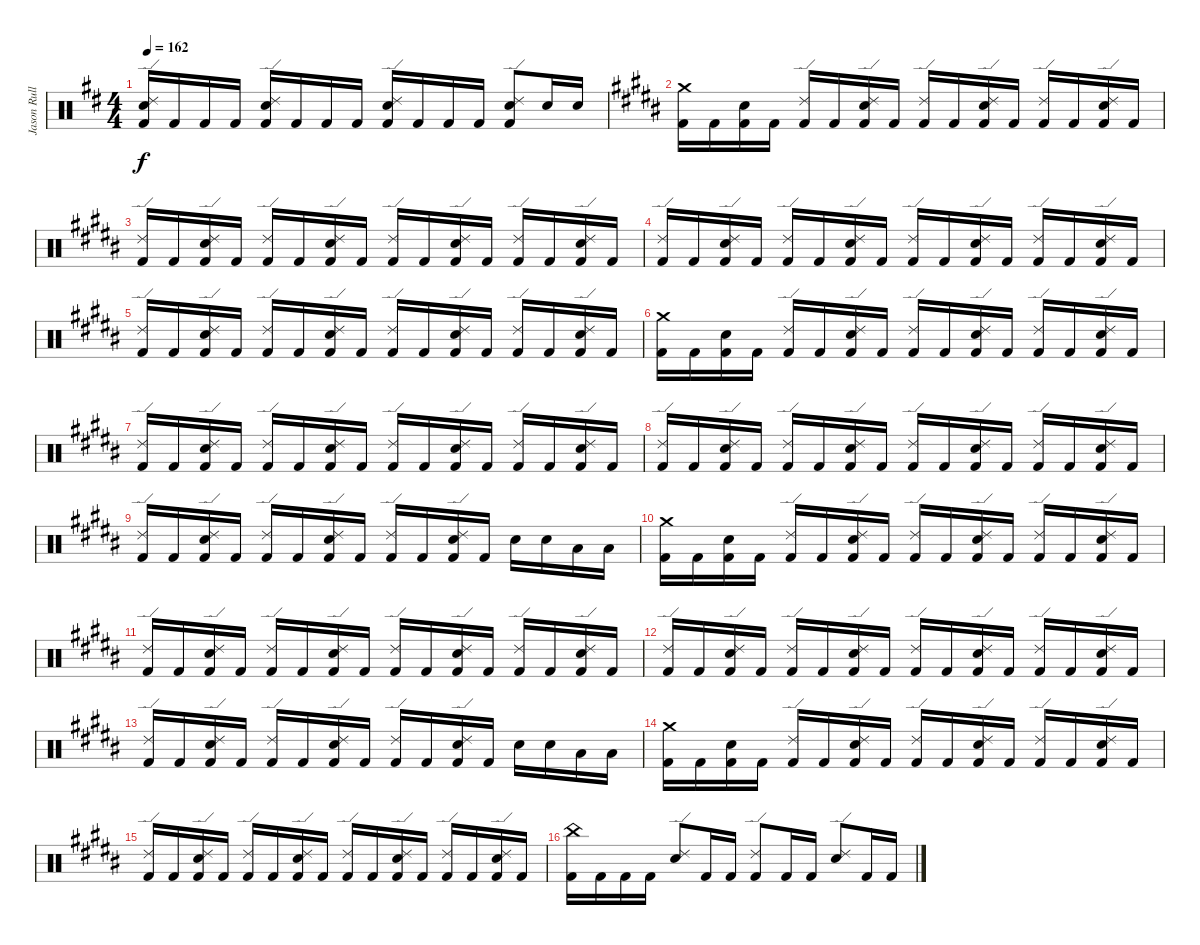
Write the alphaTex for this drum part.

\track ("Jason Rullo" "Jason Rull") {instrument percussion}
\staff {score}
\articulation defaults
\ts (4 4)
\tempo 162
\clef neutral
\ks bminor
("Ride (edge) 2" "Electric Snare (hit)" "Kick (hit) 2").16{dy f} "Kick (hit) 2".16 "Kick (hit) 2".16 "Kick (hit) 2".16 ("Ride (edge) 2" "Electric Snare (hit)" "Kick (hit) 2").16 "Kick (hit) 2".16 "Kick (hit) 2".16 "Kick (hit) 2".16 ("Ride (edge) 2" "Electric Snare (hit)" "Kick (hit) 2").16 "Kick (hit) 2".16 "Kick (hit) 2".16 "Kick (hit) 2".16 ("Ride (edge) 2" "Electric Snare (hit)" "Kick (hit) 2").8 "Electric Snare (hit)".16 "Electric Snare (hit)".16 |
\ks g#minor
("Crash medium (hit)" "Kick (hit) 2").16 "Kick (hit) 2".16 ("Electric Snare (hit)" "Kick (hit) 2").16 "Kick (hit) 2".16 ("Ride (edge) 2" "Kick (hit) 2").16 "Kick (hit) 2".16 ("Electric Snare (hit)" "Ride (edge) 2" "Kick (hit) 2").16 "Kick (hit) 2".16 ("Ride (edge) 2" "Kick (hit) 2").16 "Kick (hit) 2".16 ("Electric Snare (hit)" "Ride (edge) 2" "Kick (hit) 2").16 "Kick (hit) 2".16 ("Ride (edge) 2" "Kick (hit) 2").16 "Kick (hit) 2".16 ("Electric Snare (hit)" "Ride (edge) 2" "Kick (hit) 2").16 "Kick (hit) 2".16 |
("Ride (edge) 2" "Kick (hit) 2").16 "Kick (hit) 2".16 ("Electric Snare (hit)" "Ride (edge) 2" "Kick (hit) 2").16 "Kick (hit) 2".16 ("Ride (edge) 2" "Kick (hit) 2").16 "Kick (hit) 2".16 ("Electric Snare (hit)" "Ride (edge) 2" "Kick (hit) 2").16 "Kick (hit) 2".16 ("Ride (edge) 2" "Kick (hit) 2").16 "Kick (hit) 2".16 ("Electric Snare (hit)" "Ride (edge) 2" "Kick (hit) 2").16 "Kick (hit) 2".16 ("Ride (edge) 2" "Kick (hit) 2").16 "Kick (hit) 2".16 ("Electric Snare (hit)" "Ride (edge) 2" "Kick (hit) 2").16 "Kick (hit) 2".16 |
("Ride (edge) 2" "Kick (hit) 2").16 "Kick (hit) 2".16 ("Electric Snare (hit)" "Ride (edge) 2" "Kick (hit) 2").16 "Kick (hit) 2".16 ("Ride (edge) 2" "Kick (hit) 2").16 "Kick (hit) 2".16 ("Electric Snare (hit)" "Ride (edge) 2" "Kick (hit) 2").16 "Kick (hit) 2".16 ("Ride (edge) 2" "Kick (hit) 2").16 "Kick (hit) 2".16 ("Electric Snare (hit)" "Ride (edge) 2" "Kick (hit) 2").16 "Kick (hit) 2".16 ("Ride (edge) 2" "Kick (hit) 2").16 "Kick (hit) 2".16 ("Electric Snare (hit)" "Ride (edge) 2" "Kick (hit) 2").16 "Kick (hit) 2".16 |
("Ride (edge) 2" "Kick (hit) 2").16 "Kick (hit) 2".16 ("Electric Snare (hit)" "Ride (edge) 2" "Kick (hit) 2").16 "Kick (hit) 2".16 ("Ride (edge) 2" "Kick (hit) 2").16 "Kick (hit) 2".16 ("Electric Snare (hit)" "Ride (edge) 2" "Kick (hit) 2").16 "Kick (hit) 2".16 ("Ride (edge) 2" "Kick (hit) 2").16 "Kick (hit) 2".16 ("Electric Snare (hit)" "Ride (edge) 2" "Kick (hit) 2").16 "Kick (hit) 2".16 ("Ride (edge) 2" "Kick (hit) 2").16 "Kick (hit) 2".16 ("Electric Snare (hit)" "Ride (edge) 2" "Kick (hit) 2").16 "Kick (hit) 2".16 |
("Crash medium (hit)" "Kick (hit) 2").16 "Kick (hit) 2".16 ("Electric Snare (hit)" "Kick (hit) 2").16 "Kick (hit) 2".16 ("Ride (edge) 2" "Kick (hit) 2").16 "Kick (hit) 2".16 ("Electric Snare (hit)" "Ride (edge) 2" "Kick (hit) 2").16 "Kick (hit) 2".16 ("Ride (edge) 2" "Kick (hit) 2").16 "Kick (hit) 2".16 ("Electric Snare (hit)" "Ride (edge) 2" "Kick (hit) 2").16 "Kick (hit) 2".16 ("Ride (edge) 2" "Kick (hit) 2").16 "Kick (hit) 2".16 ("Electric Snare (hit)" "Ride (edge) 2" "Kick (hit) 2").16 "Kick (hit) 2".16 |
("Ride (edge) 2" "Kick (hit) 2").16 "Kick (hit) 2".16 ("Electric Snare (hit)" "Ride (edge) 2" "Kick (hit) 2").16 "Kick (hit) 2".16 ("Ride (edge) 2" "Kick (hit) 2").16 "Kick (hit) 2".16 ("Electric Snare (hit)" "Ride (edge) 2" "Kick (hit) 2").16 "Kick (hit) 2".16 ("Ride (edge) 2" "Kick (hit) 2").16 "Kick (hit) 2".16 ("Electric Snare (hit)" "Ride (edge) 2" "Kick (hit) 2").16 "Kick (hit) 2".16 ("Ride (edge) 2" "Kick (hit) 2").16 "Kick (hit) 2".16 ("Electric Snare (hit)" "Ride (edge) 2" "Kick (hit) 2").16 "Kick (hit) 2".16 |
("Ride (edge) 2" "Kick (hit) 2").16 "Kick (hit) 2".16 ("Electric Snare (hit)" "Ride (edge) 2" "Kick (hit) 2").16 "Kick (hit) 2".16 ("Ride (edge) 2" "Kick (hit) 2").16 "Kick (hit) 2".16 ("Electric Snare (hit)" "Ride (edge) 2" "Kick (hit) 2").16 "Kick (hit) 2".16 ("Ride (edge) 2" "Kick (hit) 2").16 "Kick (hit) 2".16 ("Electric Snare (hit)" "Ride (edge) 2" "Kick (hit) 2").16 "Kick (hit) 2".16 ("Ride (edge) 2" "Kick (hit) 2").16 "Kick (hit) 2".16 ("Electric Snare (hit)" "Ride (edge) 2" "Kick (hit) 2").16 "Kick (hit) 2".16 |
("Ride (edge) 2" "Kick (hit) 2").16 "Kick (hit) 2".16 ("Electric Snare (hit)" "Ride (edge) 2" "Kick (hit) 2").16 "Kick (hit) 2".16 ("Ride (edge) 2" "Kick (hit) 2").16 "Kick (hit) 2".16 ("Electric Snare (hit)" "Ride (edge) 2" "Kick (hit) 2").16 "Kick (hit) 2".16 ("Ride (edge) 2" "Kick (hit) 2").16 "Kick (hit) 2".16 ("Electric Snare (hit)" "Ride (edge) 2" "Kick (hit) 2").16 "Kick (hit) 2".16 "Electric Snare (hit)".16 "Electric Snare (hit)".16 "Low Tom (hit)".16 "Low Tom (hit)".16 |
("Crash medium (hit)" "Kick (hit) 2").16 "Kick (hit) 2".16 ("Electric Snare (hit)" "Kick (hit) 2").16 "Kick (hit) 2".16 ("Ride (edge) 2" "Kick (hit) 2").16 "Kick (hit) 2".16 ("Electric Snare (hit)" "Ride (edge) 2" "Kick (hit) 2").16 "Kick (hit) 2".16 ("Ride (edge) 2" "Kick (hit) 2").16 "Kick (hit) 2".16 ("Electric Snare (hit)" "Ride (edge) 2" "Kick (hit) 2").16 "Kick (hit) 2".16 ("Ride (edge) 2" "Kick (hit) 2").16 "Kick (hit) 2".16 ("Electric Snare (hit)" "Ride (edge) 2" "Kick (hit) 2").16 "Kick (hit) 2".16 |
("Ride (edge) 2" "Kick (hit) 2").16 "Kick (hit) 2".16 ("Electric Snare (hit)" "Ride (edge) 2" "Kick (hit) 2").16 "Kick (hit) 2".16 ("Ride (edge) 2" "Kick (hit) 2").16 "Kick (hit) 2".16 ("Electric Snare (hit)" "Ride (edge) 2" "Kick (hit) 2").16 "Kick (hit) 2".16 ("Ride (edge) 2" "Kick (hit) 2").16 "Kick (hit) 2".16 ("Electric Snare (hit)" "Ride (edge) 2" "Kick (hit) 2").16 "Kick (hit) 2".16 ("Ride (edge) 2" "Kick (hit) 2").16 "Kick (hit) 2".16 ("Electric Snare (hit)" "Ride (edge) 2" "Kick (hit) 2").16 "Kick (hit) 2".16 |
("Ride (edge) 2" "Kick (hit) 2").16 "Kick (hit) 2".16 ("Electric Snare (hit)" "Ride (edge) 2" "Kick (hit) 2").16 "Kick (hit) 2".16 ("Ride (edge) 2" "Kick (hit) 2").16 "Kick (hit) 2".16 ("Electric Snare (hit)" "Ride (edge) 2" "Kick (hit) 2").16 "Kick (hit) 2".16 ("Ride (edge) 2" "Kick (hit) 2").16 "Kick (hit) 2".16 ("Electric Snare (hit)" "Ride (edge) 2" "Kick (hit) 2").16 "Kick (hit) 2".16 ("Ride (edge) 2" "Kick (hit) 2").16 "Kick (hit) 2".16 ("Electric Snare (hit)" "Ride (edge) 2" "Kick (hit) 2").16 "Kick (hit) 2".16 |
("Ride (edge) 2" "Kick (hit) 2").16 "Kick (hit) 2".16 ("Electric Snare (hit)" "Ride (edge) 2" "Kick (hit) 2").16 "Kick (hit) 2".16 ("Ride (edge) 2" "Kick (hit) 2").16 "Kick (hit) 2".16 ("Electric Snare (hit)" "Ride (edge) 2" "Kick (hit) 2").16 "Kick (hit) 2".16 ("Ride (edge) 2" "Kick (hit) 2").16 "Kick (hit) 2".16 ("Electric Snare (hit)" "Ride (edge) 2" "Kick (hit) 2").16 "Kick (hit) 2".16 "Electric Snare (hit)".16 "Electric Snare (hit)".16 "Low Tom (hit)".16 "Low Tom (hit)".16 |
("Crash medium (hit)" "Kick (hit) 2").16 "Kick (hit) 2".16 ("Electric Snare (hit)" "Kick (hit) 2").16 "Kick (hit) 2".16 ("Ride (edge) 2" "Kick (hit) 2").16 "Kick (hit) 2".16 ("Electric Snare (hit)" "Ride (edge) 2" "Kick (hit) 2").16 "Kick (hit) 2".16 ("Ride (edge) 2" "Kick (hit) 2").16 "Kick (hit) 2".16 ("Electric Snare (hit)" "Ride (edge) 2" "Kick (hit) 2").16 "Kick (hit) 2".16 ("Ride (edge) 2" "Kick (hit) 2").16 "Kick (hit) 2".16 ("Electric Snare (hit)" "Ride (edge) 2" "Kick (hit) 2").16 "Kick (hit) 2".16 |
("Ride (edge) 2" "Kick (hit) 2").16 "Kick (hit) 2".16 ("Electric Snare (hit)" "Ride (edge) 2" "Kick (hit) 2").16 "Kick (hit) 2".16 ("Ride (edge) 2" "Kick (hit) 2").16 "Kick (hit) 2".16 ("Electric Snare (hit)" "Ride (edge) 2" "Kick (hit) 2").16 "Kick (hit) 2".16 ("Ride (edge) 2" "Kick (hit) 2").16 "Kick (hit) 2".16 ("Electric Snare (hit)" "Ride (edge) 2" "Kick (hit) 2").16 "Kick (hit) 2".16 ("Ride (edge) 2" "Kick (hit) 2").16 "Kick (hit) 2".16 ("Electric Snare (hit)" "Ride (edge) 2" "Kick (hit) 2").16 "Kick (hit) 2".16 |
("China (hit)" "Kick (hit) 2").16 "Kick (hit) 2".16 "Kick (hit) 2".16 "Kick (hit) 2".16 ("Ride (edge) 2" "Electric Snare (hit)").8 "Kick (hit) 2".16 "Kick (hit) 2".16 ("Ride (edge) 2" "Kick (hit) 2").8 "Kick (hit) 2".16 "Kick (hit) 2".16 ("Ride (edge) 2" "Electric Snare (hit)").8 "Kick (hit) 2".16 "Kick (hit) 2".16
